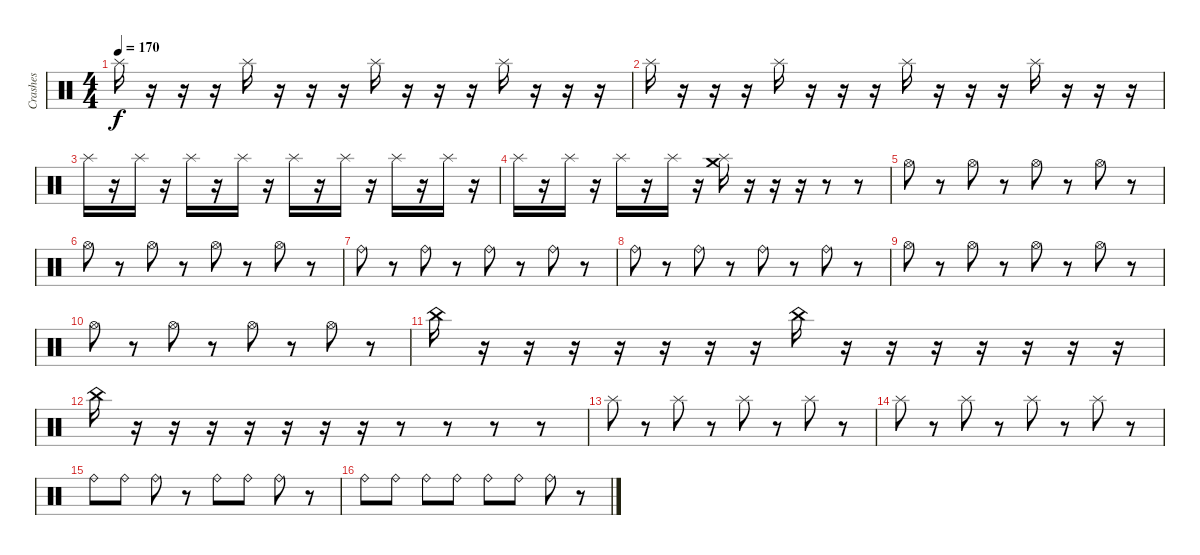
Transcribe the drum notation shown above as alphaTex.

\track ("Crashes" "Crashes") {instrument percussion}
\staff {score}
\articulation defaults
\ts (4 4)
\tempo 170
\clef neutral
\ks c "Splash (hit)".16{dy f}
r.16 r.16 r.16 "Splash (hit)".16 r.16 r.16 r.16 "Splash (hit)".16 r.16 r.16 r.16 "Splash (hit)".16 r.16 r.16 r.16 |
"Splash (hit)".16 r.16 r.16 r.16 "Splash (hit)".16 r.16 r.16 r.16 "Splash (hit)".16 r.16 r.16 r.16 "Splash (hit)".16 r.16 r.16 r.16 |
"Splash (hit)".16 r.16 "Splash (hit)".16 r.16 "Splash (hit)".16 r.16 "Splash (hit)".16 r.16 "Splash (hit)".16 r.16 "Splash (hit)".16 r.16 "Splash (hit)".16 r.16 "Splash (hit)".16 r.16 |
"Splash (hit)".16 r.16 "Splash (hit)".16 r.16 "Splash (hit)".16 r.16 "Splash (hit)".16 r.16 ("Splash (hit)" "Crash medium (hit)").16 r.16 r.16 r.16 r.8 r.8 |
"Hi-Hat (open)".8 r.8 "Hi-Hat (open)".8 r.8 "Hi-Hat (open)".8 r.8 "Hi-Hat (open)".8 r.8 |
"Hi-Hat (open)".8 r.8 "Hi-Hat (open)".8 r.8 "Hi-Hat (open)".8 r.8 "Hi-Hat (open)".8 r.8 |
"Ride (bell)".8 r.8 "Ride (bell)".8 r.8 "Ride (bell)".8 r.8 "Ride (bell)".8 r.8 |
"Ride (bell)".8 r.8 "Ride (bell)".8 r.8 "Ride (bell)".8 r.8 "Ride (bell)".8 r.8 |
"Hi-Hat (open)".8 r.8 "Hi-Hat (open)".8 r.8 "Hi-Hat (open)".8 r.8 "Hi-Hat (open)".8 r.8 |
"Hi-Hat (open)".8 r.8 "Hi-Hat (open)".8 r.8 "Hi-Hat (open)".8 r.8 "Hi-Hat (open)".8 r.8 |
"China (hit)".16 r.16 r.16 r.16 r.16 r.16 r.16 r.16 "China (hit)".16 r.16 r.16 r.16 r.16 r.16 r.16 r.16 |
"China (hit)".16 r.16 r.16 r.16 r.16 r.16 r.16 r.16 r.8 r.8 r.8 r.8 |
"Splash (hit)".8 r.8 "Splash (hit)".8 r.8 "Splash (hit)".8 r.8 "Splash (hit)".8 r.8 |
"Splash (hit)".8 r.8 "Splash (hit)".8 r.8 "Splash (hit)".8 r.8 "Splash (hit)".8 r.8 |
"Ride (bell)".8 "Ride (bell)".8 "Ride (bell)".8 r.8 "Ride (bell)".8 "Ride (bell)".8 "Ride (bell)".8 r.8 |
"Ride (bell)".8 "Ride (bell)".8 "Ride (bell)".8 "Ride (bell)".8 "Ride (bell)".8 "Ride (bell)".8 "Ride (bell)".8 r.8
